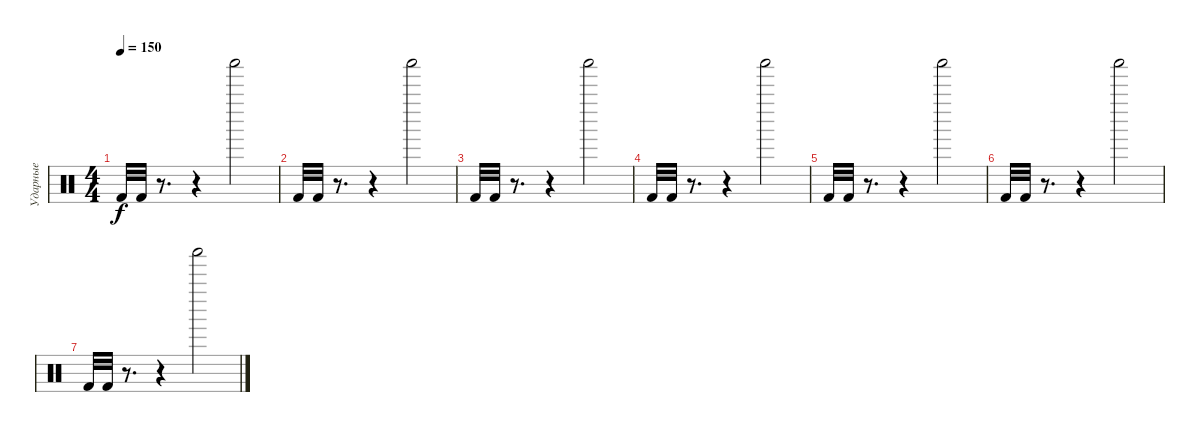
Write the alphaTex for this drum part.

\track ("Ударные" "Ударные") {instrument percussion}
\staff {score}
\articulation defaults
\ts (4 4)
\tempo 150
\clef neutral
\ks c "Kick (hit) 2".32{dy f} "Kick (hit) 2".32
r.8{d} r.4 "Shaker (hit)".2 |
"Kick (hit) 2".32 "Kick (hit) 2".32 r.8{d} r.4 "Shaker (hit)".2 |
"Kick (hit) 2".32 "Kick (hit) 2".32 r.8{d} r.4 "Shaker (hit)".2 |
"Kick (hit) 2".32 "Kick (hit) 2".32 r.8{d} r.4 "Shaker (hit)".2 |
"Kick (hit) 2".32 "Kick (hit) 2".32 r.8{d} r.4 "Shaker (hit)".2 |
"Kick (hit) 2".32 "Kick (hit) 2".32 r.8{d} r.4 "Shaker (hit)".2 |
"Kick (hit) 2".32 "Kick (hit) 2".32 r.8{d} r.4 "Shaker (hit)".2
